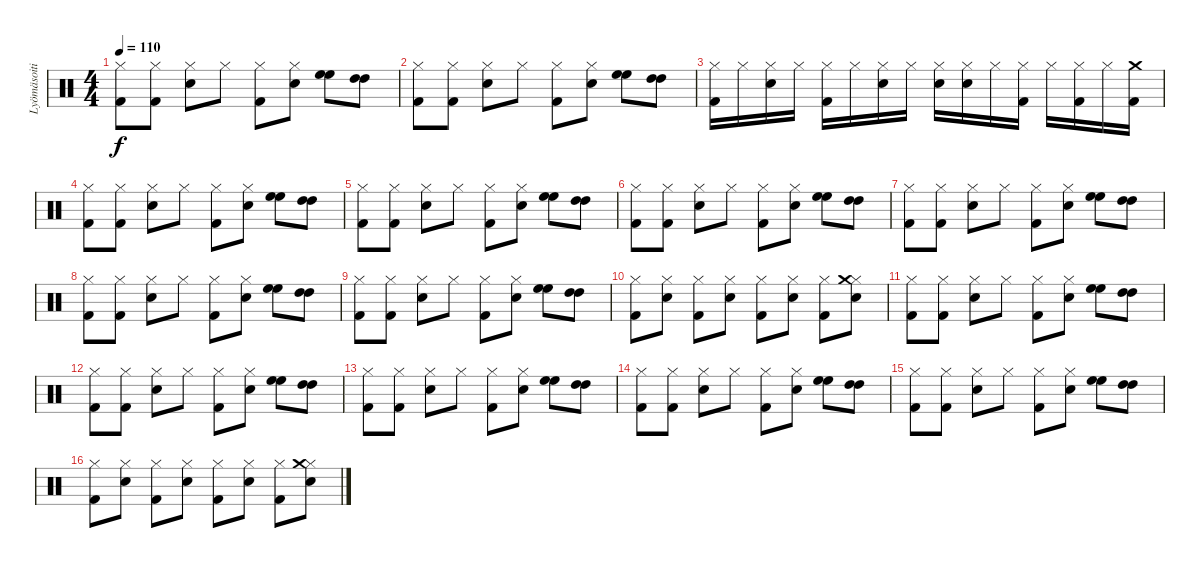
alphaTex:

\track ("Lyömäsoitin" "Lyömäsoiti") {instrument percussion}
\staff {score}
\articulation defaults
\ts (4 4)
\tempo 110
\clef neutral
\ks c
("Hi-Hat (closed)" "Kick (hit) 2").8{dy f} ("Hi-Hat (closed)" "Kick (hit) 2").8 ("Hi-Hat (closed)" "Snare (hit) 2").8 "Hi-Hat (closed)".8 ("Hi-Hat (closed)" "Kick (hit) 2").8 ("Hi-Hat (closed)" "Snare (hit) 2").8 ("High Floor Tom (hit)" "High Floor Tom (hit)").8 ("High Tom (hit)" "High Tom (hit)").8 |
("Hi-Hat (closed)" "Kick (hit) 2").8 ("Hi-Hat (closed)" "Kick (hit) 2").8 ("Hi-Hat (closed)" "Snare (hit) 2").8 "Hi-Hat (closed)".8 ("Hi-Hat (closed)" "Kick (hit) 2").8 ("Hi-Hat (closed)" "Snare (hit) 2").8 ("High Floor Tom (hit)" "High Floor Tom (hit)").8 ("High Tom (hit)" "High Tom (hit)").8 |
("Hi-Hat (closed)" "Kick (hit) 2").16 "Hi-Hat (closed)".16 ("Hi-Hat (closed)" "Snare (hit) 2").16 "Hi-Hat (closed)".16 ("Hi-Hat (closed)" "Kick (hit) 2").16 "Hi-Hat (closed)".16 ("Hi-Hat (closed)" "Snare (hit) 2").16 "Hi-Hat (closed)".16 ("Hi-Hat (closed)" "Snare (hit) 2").16 ("Hi-Hat (closed)" "Snare (hit) 2").16 "Hi-Hat (closed)".16 ("Hi-Hat (closed)" "Kick (hit) 2").16 "Hi-Hat (closed)".16 ("Hi-Hat (closed)" "Kick (hit) 2").16 "Hi-Hat (closed)".16 ("Crash medium (hit)" "Kick (hit) 2").16 |
("Hi-Hat (closed)" "Kick (hit) 2").8 ("Hi-Hat (closed)" "Kick (hit) 2").8 ("Hi-Hat (closed)" "Snare (hit) 2").8 "Hi-Hat (closed)".8 ("Hi-Hat (closed)" "Kick (hit) 2").8 ("Hi-Hat (closed)" "Snare (hit) 2").8 ("High Floor Tom (hit)" "High Floor Tom (hit)").8 ("High Tom (hit)" "High Tom (hit)").8 |
("Hi-Hat (closed)" "Kick (hit) 2").8 ("Hi-Hat (closed)" "Kick (hit) 2").8 ("Hi-Hat (closed)" "Snare (hit) 2").8 "Hi-Hat (closed)".8 ("Hi-Hat (closed)" "Kick (hit) 2").8 ("Hi-Hat (closed)" "Snare (hit) 2").8 ("High Floor Tom (hit)" "High Floor Tom (hit)").8 ("High Tom (hit)" "High Tom (hit)").8 |
("Hi-Hat (closed)" "Kick (hit) 2").8 ("Hi-Hat (closed)" "Kick (hit) 2").8 ("Hi-Hat (closed)" "Snare (hit) 2").8 "Hi-Hat (closed)".8 ("Hi-Hat (closed)" "Kick (hit) 2").8 ("Hi-Hat (closed)" "Snare (hit) 2").8 ("High Floor Tom (hit)" "High Floor Tom (hit)").8 ("High Tom (hit)" "High Tom (hit)").8 |
("Hi-Hat (closed)" "Kick (hit) 2").8 ("Hi-Hat (closed)" "Kick (hit) 2").8 ("Hi-Hat (closed)" "Snare (hit) 2").8 "Hi-Hat (closed)".8 ("Hi-Hat (closed)" "Kick (hit) 2").8 ("Hi-Hat (closed)" "Snare (hit) 2").8 ("High Floor Tom (hit)" "High Floor Tom (hit)").8 ("High Tom (hit)" "High Tom (hit)").8 |
("Hi-Hat (closed)" "Kick (hit) 2").8 ("Hi-Hat (closed)" "Kick (hit) 2").8 ("Hi-Hat (closed)" "Snare (hit) 2").8 "Hi-Hat (closed)".8 ("Hi-Hat (closed)" "Kick (hit) 2").8 ("Hi-Hat (closed)" "Snare (hit) 2").8 ("High Floor Tom (hit)" "High Floor Tom (hit)").8 ("High Tom (hit)" "High Tom (hit)").8 |
("Hi-Hat (closed)" "Kick (hit) 2").8 ("Hi-Hat (closed)" "Kick (hit) 2").8 ("Hi-Hat (closed)" "Snare (hit) 2").8 "Hi-Hat (closed)".8 ("Hi-Hat (closed)" "Kick (hit) 2").8 ("Hi-Hat (closed)" "Snare (hit) 2").8 ("High Floor Tom (hit)" "High Floor Tom (hit)").8 ("High Tom (hit)" "High Tom (hit)").8 |
("Hi-Hat (closed)" "Kick (hit) 2").8 ("Hi-Hat (closed)" "Snare (hit) 2").8 ("Hi-Hat (closed)" "Kick (hit) 2").8 ("Hi-Hat (closed)" "Snare (hit) 2").8 ("Hi-Hat (closed)" "Kick (hit) 2").8 ("Hi-Hat (closed)" "Snare (hit) 2").8 ("Hi-Hat (closed)" "Kick (hit) 2").8 ("Hi-Hat (closed)" "Snare (hit) 2" "Crash medium (hit)").8 |
("Hi-Hat (closed)" "Kick (hit) 2").8 ("Hi-Hat (closed)" "Kick (hit) 2").8 ("Hi-Hat (closed)" "Snare (hit) 2").8 "Hi-Hat (closed)".8 ("Hi-Hat (closed)" "Kick (hit) 2").8 ("Hi-Hat (closed)" "Snare (hit) 2").8 ("High Floor Tom (hit)" "High Floor Tom (hit)").8 ("High Tom (hit)" "High Tom (hit)").8 |
("Hi-Hat (closed)" "Kick (hit) 2").8 ("Hi-Hat (closed)" "Kick (hit) 2").8 ("Hi-Hat (closed)" "Snare (hit) 2").8 "Hi-Hat (closed)".8 ("Hi-Hat (closed)" "Kick (hit) 2").8 ("Hi-Hat (closed)" "Snare (hit) 2").8 ("High Floor Tom (hit)" "High Floor Tom (hit)").8 ("High Tom (hit)" "High Tom (hit)").8 |
("Hi-Hat (closed)" "Kick (hit) 2").8 ("Hi-Hat (closed)" "Kick (hit) 2").8 ("Hi-Hat (closed)" "Snare (hit) 2").8 "Hi-Hat (closed)".8 ("Hi-Hat (closed)" "Kick (hit) 2").8 ("Hi-Hat (closed)" "Snare (hit) 2").8 ("High Floor Tom (hit)" "High Floor Tom (hit)").8 ("High Tom (hit)" "High Tom (hit)").8 |
("Hi-Hat (closed)" "Kick (hit) 2").8 ("Hi-Hat (closed)" "Kick (hit) 2").8 ("Hi-Hat (closed)" "Snare (hit) 2").8 "Hi-Hat (closed)".8 ("Hi-Hat (closed)" "Kick (hit) 2").8 ("Hi-Hat (closed)" "Snare (hit) 2").8 ("High Floor Tom (hit)" "High Floor Tom (hit)").8 ("High Tom (hit)" "High Tom (hit)").8 |
("Hi-Hat (closed)" "Kick (hit) 2").8 ("Hi-Hat (closed)" "Kick (hit) 2").8 ("Hi-Hat (closed)" "Snare (hit) 2").8 "Hi-Hat (closed)".8 ("Hi-Hat (closed)" "Kick (hit) 2").8 ("Hi-Hat (closed)" "Snare (hit) 2").8 ("High Floor Tom (hit)" "High Floor Tom (hit)").8 ("High Tom (hit)" "High Tom (hit)").8 |
("Hi-Hat (closed)" "Kick (hit) 2").8 ("Hi-Hat (closed)" "Snare (hit) 2").8 ("Hi-Hat (closed)" "Kick (hit) 2").8 ("Hi-Hat (closed)" "Snare (hit) 2").8 ("Hi-Hat (closed)" "Kick (hit) 2").8 ("Hi-Hat (closed)" "Snare (hit) 2").8 ("Hi-Hat (closed)" "Kick (hit) 2").8 ("Hi-Hat (closed)" "Snare (hit) 2" "Crash medium (hit)").8
